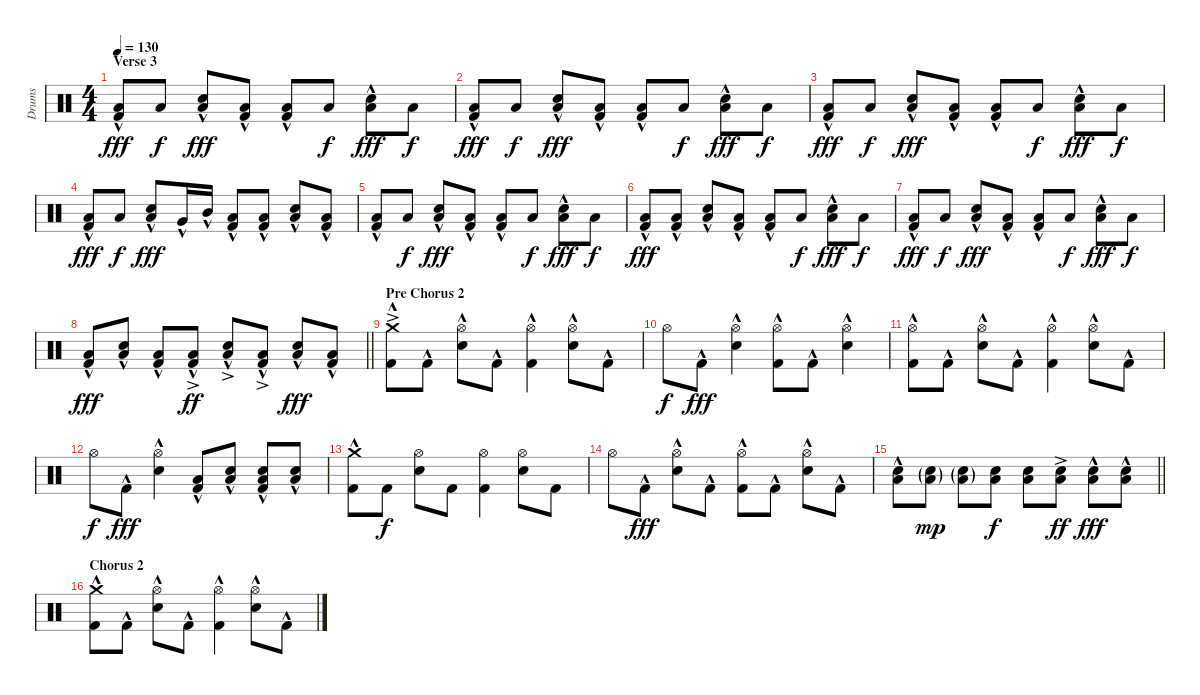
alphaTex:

\track ("Drums" "Drums") {instrument percussion}
\staff {score}
\articulation defaults
\ts (4 4)
\section ("" "Verse 3")
\tempo 130
\clef neutral
\ks c
("Kick (hit) 2"{hac} "Low Floor Tom (hit)").8{dy fff} "Low Floor Tom (hit)".8{dy f} ("Electric Snare (hit)"{hac} "Low Floor Tom (hit)").8{dy fff} ("Kick (hit) 2"{hac} "Low Floor Tom (hit)").8 ("Kick (hit) 2"{hac} "Low Floor Tom (hit)").8 "Low Floor Tom (hit)".8{dy f} ("Electric Snare (hit)"{hac} "Low Floor Tom (hit)").8{dy fff} "Low Floor Tom (hit)".8{dy f} |
("Kick (hit) 2"{hac} "Low Floor Tom (hit)").8{dy fff} "Low Floor Tom (hit)".8{dy f} ("Electric Snare (hit)"{hac} "Low Floor Tom (hit)").8{dy fff} ("Kick (hit) 2"{hac} "Low Floor Tom (hit)").8 ("Kick (hit) 2"{hac} "Low Floor Tom (hit)").8 "Low Floor Tom (hit)".8{dy f} ("Electric Snare (hit)"{hac} "Low Floor Tom (hit)").8{dy fff} "Low Floor Tom (hit)".8{dy f} |
("Kick (hit) 2"{hac} "Low Floor Tom (hit)").8{dy fff} "Low Floor Tom (hit)".8{dy f} ("Electric Snare (hit)"{hac} "Low Floor Tom (hit)").8{dy fff} ("Kick (hit) 2"{hac} "Low Floor Tom (hit)").8 ("Kick (hit) 2"{hac} "Low Floor Tom (hit)").8 "Low Floor Tom (hit)".8{dy f} ("Electric Snare (hit)"{hac} "Low Floor Tom (hit)").8{dy fff} "Low Floor Tom (hit)".8{dy f} |
("Kick (hit) 2"{hac} "Low Floor Tom (hit)").8{dy fff} "Low Floor Tom (hit)".8{dy f} ("Electric Snare (hit)"{hac} "Low Floor Tom (hit)").8{dy fff} "Very Low Tom (hit)"{hac}.16 "Mid Tom (hit)"{hac}.16 ("Kick (hit) 2"{hac} "Low Floor Tom (hit)").8 ("Kick (hit) 2"{hac} "Low Floor Tom (hit)").8 ("Electric Snare (hit)"{hac} "Low Floor Tom (hit)").8 ("Kick (hit) 2"{hac} "Low Floor Tom (hit)").8 |
("Kick (hit) 2"{hac} "Low Floor Tom (hit)").8 "Low Floor Tom (hit)".8{dy f} ("Electric Snare (hit)"{hac} "Low Floor Tom (hit)").8{dy fff} ("Kick (hit) 2"{hac} "Low Floor Tom (hit)").8 ("Kick (hit) 2"{hac} "Low Floor Tom (hit)").8 "Low Floor Tom (hit)".8{dy f} ("Electric Snare (hit)"{hac} "Low Floor Tom (hit)").8{dy fff} "Low Floor Tom (hit)".8{dy f} |
("Kick (hit) 2"{hac} "Low Floor Tom (hit)").8{dy fff} ("Kick (hit) 2"{hac} "Low Floor Tom (hit)").8 ("Electric Snare (hit)"{hac} "Low Floor Tom (hit)").8 ("Kick (hit) 2"{hac} "Low Floor Tom (hit)").8 ("Kick (hit) 2"{hac} "Low Floor Tom (hit)").8 "Low Floor Tom (hit)".8{dy f} ("Electric Snare (hit)"{hac} "Low Floor Tom (hit)").8{dy fff} "Low Floor Tom (hit)".8{dy f} |
("Kick (hit) 2"{hac} "Low Floor Tom (hit)").8{dy fff} "Low Floor Tom (hit)".8{dy f} ("Electric Snare (hit)"{hac} "Low Floor Tom (hit)").8{dy fff} ("Kick (hit) 2"{hac} "Low Floor Tom (hit)").8 ("Kick (hit) 2"{hac} "Low Floor Tom (hit)").8 "Low Floor Tom (hit)".8{dy f} ("Electric Snare (hit)"{hac} "Low Floor Tom (hit)").8{dy fff} "Low Floor Tom (hit)".8{dy f} |
\barLineRight lightlight
("Kick (hit) 2"{hac} "Low Floor Tom (hit)").8{dy fff} ("Electric Snare (hit)"{hac} "Low Floor Tom (hit)").8 ("Kick (hit) 2"{hac} "Low Floor Tom (hit)").8 ("Kick (hit) 2"{hac} "Low Floor Tom (hit)"{ac}).8{dy ff} ("Electric Snare (hit)"{hac} "Low Floor Tom (hit)"{ac}).8 ("Kick (hit) 2"{hac} "Low Floor Tom (hit)"{ac}).8 ("Electric Snare (hit)"{hac} "Low Floor Tom (hit)"{hac}).8{dy fff} ("Kick (hit) 2"{hac} "Low Floor Tom (hit)"{hac}).8 |
\section ("" "Pre Chorus 2")
("Crash medium (hit)"{ac} "Kick (hit) 2"{hac}).8 "Kick (hit) 2"{hac}.8 ("Hi-Hat (open)" "Electric Snare (hit)"{hac}).8 "Kick (hit) 2"{hac}.8 ("Hi-Hat (open)" "Kick (hit) 2"{hac}).4 ("Hi-Hat (open)" "Electric Snare (hit)"{hac}).8 "Kick (hit) 2"{hac}.8 |
"Hi-Hat (open)".8{dy f} "Kick (hit) 2"{hac}.8{dy fff} ("Hi-Hat (open)" "Electric Snare (hit)"{hac}).4 ("Hi-Hat (open)" "Kick (hit) 2"{hac}).8 "Kick (hit) 2"{hac}.8 ("Hi-Hat (open)" "Electric Snare (hit)"{hac}).4 |
("Hi-Hat (open)" "Kick (hit) 2"{hac}).8 "Kick (hit) 2"{hac}.8 ("Hi-Hat (open)" "Electric Snare (hit)"{hac}).8 "Kick (hit) 2"{hac}.8 ("Hi-Hat (open)" "Kick (hit) 2"{hac}).4 ("Hi-Hat (open)" "Electric Snare (hit)"{hac}).8 "Kick (hit) 2"{hac}.8 |
"Hi-Hat (open)".8{dy f} "Kick (hit) 2"{hac}.8{dy fff} ("Hi-Hat (open)" "Electric Snare (hit)"{hac}).4 ("Low Floor Tom (hit)"{hac} "Kick (hit) 2"{hac}).8 ("Electric Snare (hit)"{hac} "Low Floor Tom (hit)"{hac}).8 ("Kick (hit) 2"{hac} "Electric Snare (hit)"{hac} "Low Floor Tom (hit)"{hac}).8 ("Electric Snare (hit)"{hac} "Low Floor Tom (hit)"{hac}).8 |
("Crash medium (hit)" "Kick (hit) 2"{hac}).8 "Kick (hit) 2".8{dy f} ("Hi-Hat (open)" "Electric Snare (hit)").8 "Kick (hit) 2".8 ("Hi-Hat (open)" "Kick (hit) 2").4 ("Hi-Hat (open)" "Electric Snare (hit)").8 "Kick (hit) 2".8 |
"Hi-Hat (open)".8 "Kick (hit) 2"{hac}.8{dy fff} ("Hi-Hat (open)" "Electric Snare (hit)"{hac}).8 "Kick (hit) 2"{hac}.8 ("Hi-Hat (open)" "Kick (hit) 2"{hac}).8 "Kick (hit) 2"{hac}.8 ("Hi-Hat (open)" "Electric Snare (hit)"{hac}).8 "Kick (hit) 2"{hac}.8 |
\barLineRight lightlight
("Electric Snare (hit)"{hac} "Low Floor Tom (hit)"{hac}).8 ("Electric Snare (hit)"{g} "Low Floor Tom (hit)"{g}).8{dy mp} ("Electric Snare (hit)"{g} "Low Floor Tom (hit)"{g}).8 ("Electric Snare (hit)" "Low Floor Tom (hit)").8{dy f} ("Electric Snare (hit)" "Low Floor Tom (hit)").8 ("Electric Snare (hit)"{ac} "Low Floor Tom (hit)"{ac}).8{dy ff} ("Electric Snare (hit)"{hac} "Low Floor Tom (hit)"{hac}).8{dy fff} ("Electric Snare (hit)"{hac} "Low Floor Tom (hit)"{hac}).8 |
\section ("" "Chorus 2")
("Crash medium (hit)" "Kick (hit) 2"{hac}).8 "Kick (hit) 2"{hac}.8 ("Hi-Hat (open)" "Electric Snare (hit)"{hac}).8 "Kick (hit) 2"{hac}.8 ("Hi-Hat (open)" "Kick (hit) 2"{hac}).4 ("Hi-Hat (open)" "Electric Snare (hit)"{hac}).8 "Kick (hit) 2"{hac}.8
